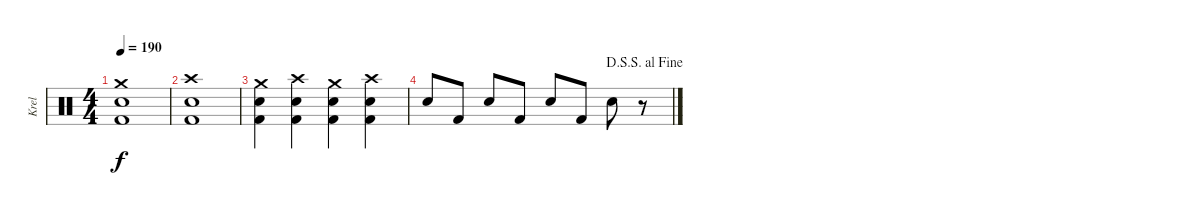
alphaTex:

\track ("Krel" "Krel") {instrument percussion}
\staff {score}
\articulation defaults
\ts (4 4)
\tempo 190
\clef neutral
\ks c
("Crash medium (hit)" "Snare (hit) 2" "Kick (hit) 2").1{dy f} |
("Crash high (hit)" "Snare (hit) 2" "Kick (hit) 2").1 |
("Crash medium (hit)" "Snare (hit) 2" "Kick (hit) 2").4 ("Crash high (hit)" "Snare (hit) 2" "Kick (hit) 2").4 ("Crash medium (hit)" "Snare (hit) 2" "Kick (hit) 2").4 ("Crash high (hit)" "Snare (hit) 2" "Kick (hit) 2").4 |
\jump dalsegnosegnoalfine "Snare (hit) 2".8 "Kick (hit) 2".8 "Snare (hit) 2".8 "Kick (hit) 2".8 "Snare (hit) 2".8 "Kick (hit) 2".8 "Snare (hit) 2".8
r.8
